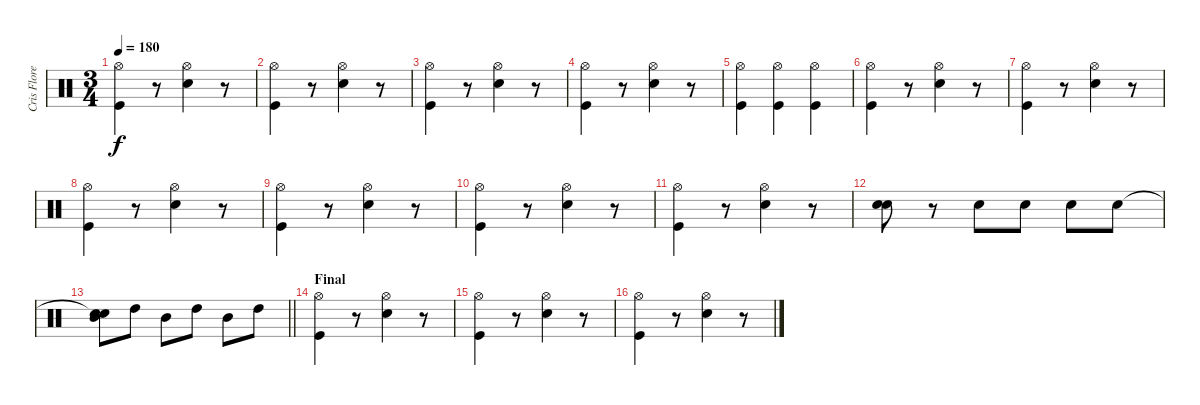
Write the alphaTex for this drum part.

\track ("Cris Flores" "Cris Flore") {instrument percussion}
\staff {score}
\articulation defaults
\ts (3 4)
\tempo 180
\clef neutral
\ks c
("Kick (hit)" "Hi-Hat (open)").4{dy f} r.8 ("Snare (hit) 2" "Hi-Hat (open)").4 r.8 |
("Kick (hit)" "Hi-Hat (open)").4 r.8 ("Snare (hit) 2" "Hi-Hat (open)").4 r.8 |
("Kick (hit)" "Hi-Hat (open)").4 r.8 ("Snare (hit) 2" "Hi-Hat (open)").4 r.8 |
("Kick (hit)" "Hi-Hat (open)").4 r.8 ("Snare (hit) 2" "Hi-Hat (open)").4 r.8 |
("Kick (hit)" "Hi-Hat (open)").4 ("Kick (hit)" "Hi-Hat (open)").4 ("Kick (hit)" "Hi-Hat (open)").4 |
("Kick (hit)" "Hi-Hat (open)").4 r.8 ("Snare (hit) 2" "Hi-Hat (open)").4 r.8 |
("Kick (hit)" "Hi-Hat (open)").4 r.8 ("Snare (hit) 2" "Hi-Hat (open)").4 r.8 |
("Kick (hit)" "Hi-Hat (open)").4 r.8 ("Snare (hit) 2" "Hi-Hat (open)").4 r.8 |
("Kick (hit)" "Hi-Hat (open)").4 r.8 ("Snare (hit) 2" "Hi-Hat (open)").4 r.8 |
("Kick (hit)" "Hi-Hat (open)").4 r.8 ("Snare (hit) 2" "Hi-Hat (open)").4 r.8 |
("Kick (hit)" "Hi-Hat (open)").4 r.8 ("Snare (hit) 2" "Hi-Hat (open)").4 r.8 |
("Electric Snare (hit)" "Snare (hit) 2").8 r.8 "Snare (hit) 2".8 "Snare (hit) 2".8 "Snare (hit) 2".8 "Snare (hit) 2".8 |
\barLineRight lightlight
("Snare (hit)"{t} "Mid Tom (hit)" "Snare (hit)").8 "High Tom (hit)".8 "Mid Tom (hit)".8 "High Tom (hit)".8 "Mid Tom (hit)".8 "High Tom (hit)".8 |
\section ("" "Final")
("Kick (hit)" "Hi-Hat (open)").4 r.8 ("Snare (hit) 2" "Hi-Hat (open)").4 r.8 |
("Kick (hit)" "Hi-Hat (open)").4 r.8 ("Snare (hit) 2" "Hi-Hat (open)").4 r.8 |
("Kick (hit)" "Hi-Hat (open)").4 r.8 ("Snare (hit) 2" "Hi-Hat (open)").4 r.8
